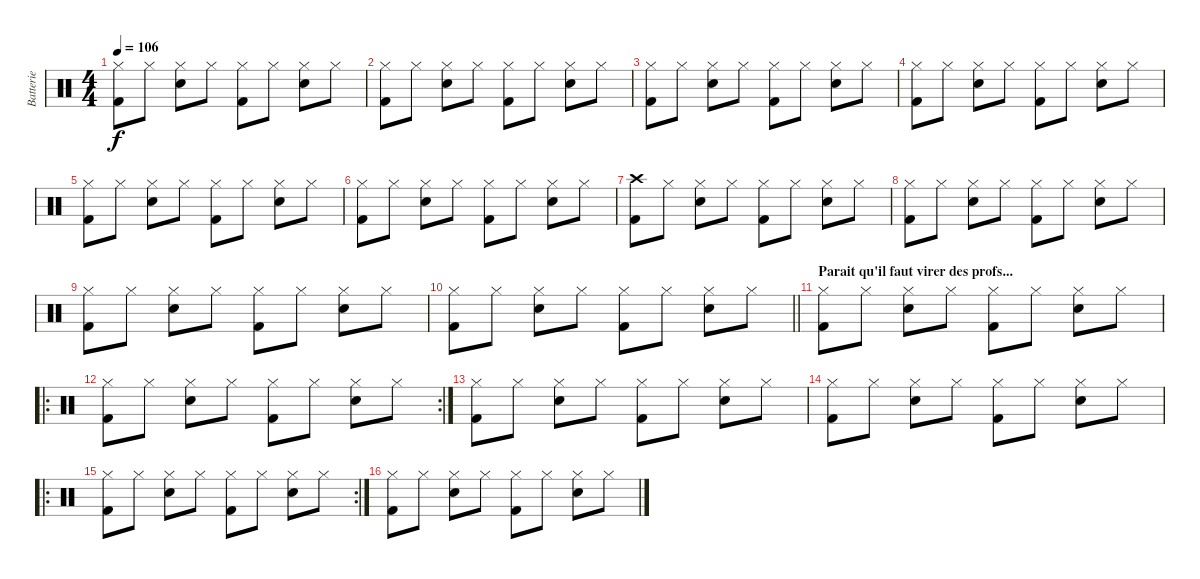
\track ("Batterie" "Batterie") {instrument percussion}
\staff {score}
\articulation defaults
\ts (4 4)
\tempo 106
\clef neutral
\ks c
("Hi-Hat (closed)" "Kick (hit) 2").8{dy f} "Hi-Hat (closed)".8 ("Hi-Hat (closed)" "Electric Snare (hit)").8 "Hi-Hat (closed)".8 ("Hi-Hat (closed)" "Kick (hit) 2").8 "Hi-Hat (closed)".8 ("Hi-Hat (closed)" "Electric Snare (hit)").8 "Hi-Hat (closed)".8 |
("Hi-Hat (closed)" "Kick (hit) 2").8 "Hi-Hat (closed)".8 ("Hi-Hat (closed)" "Electric Snare (hit)").8 "Hi-Hat (closed)".8 ("Hi-Hat (closed)" "Kick (hit) 2").8 "Hi-Hat (closed)".8 ("Hi-Hat (closed)" "Electric Snare (hit)").8 "Hi-Hat (closed)".8 |
("Hi-Hat (closed)" "Kick (hit) 2").8 "Hi-Hat (closed)".8 ("Hi-Hat (closed)" "Electric Snare (hit)").8 "Hi-Hat (closed)".8 ("Hi-Hat (closed)" "Kick (hit) 2").8 "Hi-Hat (closed)".8 ("Hi-Hat (closed)" "Electric Snare (hit)").8 "Hi-Hat (closed)".8 |
("Hi-Hat (closed)" "Kick (hit) 2").8 "Hi-Hat (closed)".8 ("Hi-Hat (closed)" "Electric Snare (hit)").8 "Hi-Hat (closed)".8 ("Hi-Hat (closed)" "Kick (hit) 2").8 "Hi-Hat (closed)".8 ("Hi-Hat (closed)" "Electric Snare (hit)").8 "Hi-Hat (closed)".8 |
("Hi-Hat (closed)" "Kick (hit) 2").8 "Hi-Hat (closed)".8 ("Hi-Hat (closed)" "Electric Snare (hit)").8 "Hi-Hat (closed)".8 ("Hi-Hat (closed)" "Kick (hit) 2").8 "Hi-Hat (closed)".8 ("Hi-Hat (closed)" "Electric Snare (hit)").8 "Hi-Hat (closed)".8 |
("Hi-Hat (closed)" "Kick (hit) 2").8 "Hi-Hat (closed)".8 ("Hi-Hat (closed)" "Electric Snare (hit)").8 "Hi-Hat (closed)".8 ("Hi-Hat (closed)" "Kick (hit) 2").8 "Hi-Hat (closed)".8 ("Hi-Hat (closed)" "Electric Snare (hit)").8 "Hi-Hat (closed)".8 |
("Crash high (hit)" "Kick (hit) 2").8 "Hi-Hat (closed)".8 ("Hi-Hat (closed)" "Electric Snare (hit)").8 "Hi-Hat (closed)".8 ("Hi-Hat (closed)" "Kick (hit) 2").8 "Hi-Hat (closed)".8 ("Hi-Hat (closed)" "Electric Snare (hit)").8 "Hi-Hat (closed)".8 |
("Hi-Hat (closed)" "Kick (hit) 2").8 "Hi-Hat (closed)".8 ("Hi-Hat (closed)" "Electric Snare (hit)").8 "Hi-Hat (closed)".8 ("Hi-Hat (closed)" "Kick (hit) 2").8 "Hi-Hat (closed)".8 ("Hi-Hat (closed)" "Electric Snare (hit)").8 "Hi-Hat (closed)".8 |
("Hi-Hat (closed)" "Kick (hit) 2").8 "Hi-Hat (closed)".8 ("Hi-Hat (closed)" "Electric Snare (hit)").8 "Hi-Hat (closed)".8 ("Hi-Hat (closed)" "Kick (hit) 2").8 "Hi-Hat (closed)".8 ("Hi-Hat (closed)" "Electric Snare (hit)").8 "Hi-Hat (closed)".8 |
\barLineRight lightlight
("Hi-Hat (closed)" "Kick (hit) 2").8 "Hi-Hat (closed)".8 ("Hi-Hat (closed)" "Electric Snare (hit)").8 "Hi-Hat (closed)".8 ("Hi-Hat (closed)" "Kick (hit) 2").8 "Hi-Hat (closed)".8 ("Hi-Hat (closed)" "Electric Snare (hit)").8 "Hi-Hat (closed)".8 |
\section ("" "Parait qu'il faut virer des profs...")
("Hi-Hat (closed)" "Kick (hit) 2").8 "Hi-Hat (closed)".8 ("Hi-Hat (closed)" "Electric Snare (hit)").8 "Hi-Hat (closed)".8 ("Hi-Hat (closed)" "Kick (hit) 2").8 "Hi-Hat (closed)".8 ("Hi-Hat (closed)" "Electric Snare (hit)").8 "Hi-Hat (closed)".8 |
\ro
\rc 2
("Hi-Hat (closed)" "Kick (hit) 2").8 "Hi-Hat (closed)".8 ("Hi-Hat (closed)" "Electric Snare (hit)").8 "Hi-Hat (closed)".8 ("Hi-Hat (closed)" "Kick (hit) 2").8 "Hi-Hat (closed)".8 ("Hi-Hat (closed)" "Electric Snare (hit)").8 "Hi-Hat (closed)".8 |
("Hi-Hat (closed)" "Kick (hit) 2").8 "Hi-Hat (closed)".8 ("Hi-Hat (closed)" "Electric Snare (hit)").8 "Hi-Hat (closed)".8 ("Hi-Hat (closed)" "Kick (hit) 2").8 "Hi-Hat (closed)".8 ("Hi-Hat (closed)" "Electric Snare (hit)").8 "Hi-Hat (closed)".8 |
("Hi-Hat (closed)" "Kick (hit) 2").8 "Hi-Hat (closed)".8 ("Hi-Hat (closed)" "Electric Snare (hit)").8 "Hi-Hat (closed)".8 ("Hi-Hat (closed)" "Kick (hit) 2").8 "Hi-Hat (closed)".8 ("Hi-Hat (closed)" "Electric Snare (hit)").8 "Hi-Hat (closed)".8 |
\ro
\rc 2
("Hi-Hat (closed)" "Kick (hit) 2").8 "Hi-Hat (closed)".8 ("Hi-Hat (closed)" "Electric Snare (hit)").8 "Hi-Hat (closed)".8 ("Hi-Hat (closed)" "Kick (hit) 2").8 "Hi-Hat (closed)".8 ("Hi-Hat (closed)" "Electric Snare (hit)").8 "Hi-Hat (closed)".8 |
("Hi-Hat (closed)" "Kick (hit) 2").8 "Hi-Hat (closed)".8 ("Hi-Hat (closed)" "Electric Snare (hit)").8 "Hi-Hat (closed)".8 ("Hi-Hat (closed)" "Kick (hit) 2").8 "Hi-Hat (closed)".8 ("Hi-Hat (closed)" "Electric Snare (hit)").8 "Hi-Hat (closed)".8
